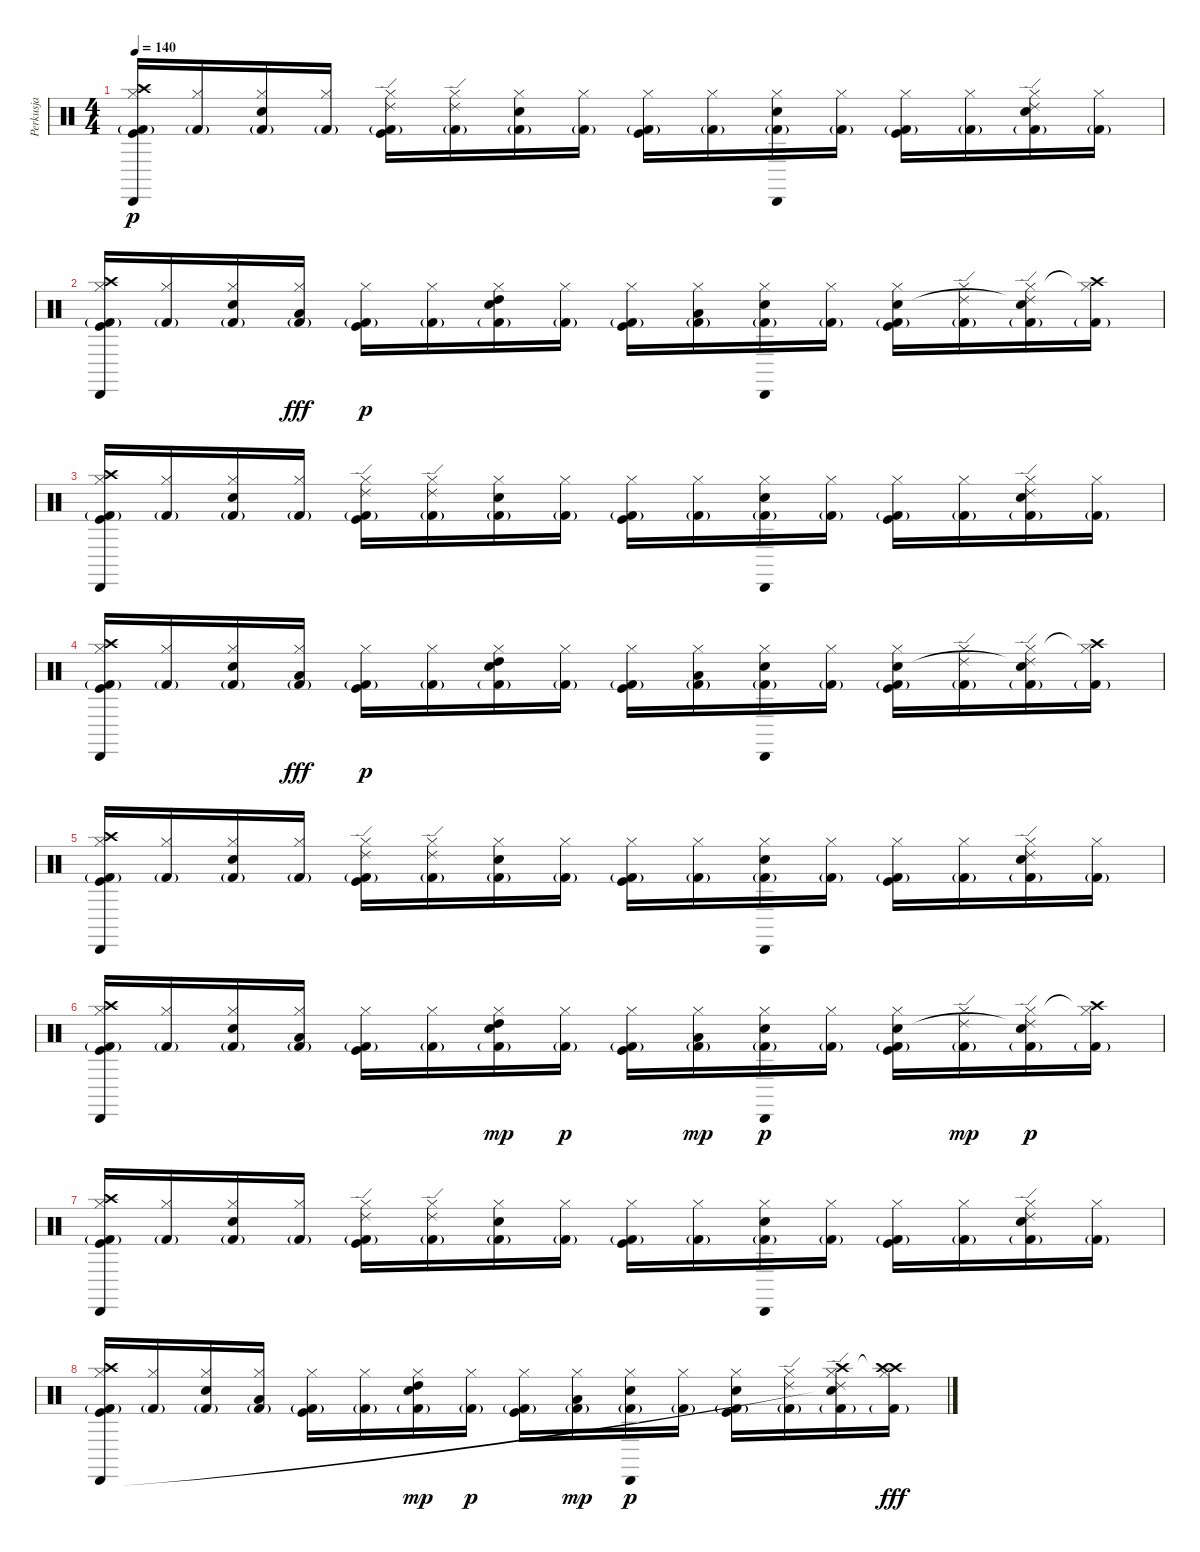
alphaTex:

\track ("Perkusja" "Perkusja") {instrument percussion}
\staff {score}
\articulation defaults
\ts (4 4)
\tempo 140
\clef neutral
\ks c
("Kick (hit) 2"{g} "Kick (hit)" "Hi-Hat (closed)" "Crash high (hit)" "Cabasa (hit)").16{dy p} ("Kick (hit) 2"{g} "Hi-Hat (closed)").16 ("Kick (hit) 2"{g} "Snare (hit) 2" "Hi-Hat (closed)").16 ("Kick (hit) 2"{g} "Hi-Hat (closed)").16 ("Kick (hit) 2"{g} "Kick (hit)" "Hi-Hat (closed)" "Ride (edge) 2").16 ("Kick (hit) 2"{g} "Hi-Hat (closed)" "Ride (edge) 2").16 ("Kick (hit) 2"{g} "Snare (hit) 2" "Hi-Hat (closed)").16 ("Kick (hit) 2"{g} "Hi-Hat (closed)").16 ("Kick (hit) 2"{g} "Kick (hit)" "Hi-Hat (closed)").16 ("Kick (hit) 2"{g} "Hi-Hat (closed)").16 ("Kick (hit) 2"{g} "Snare (hit) 2" "Hi-Hat (closed)" "Cabasa (hit)").16 ("Kick (hit) 2"{g} "Hi-Hat (closed)").16 ("Kick (hit) 2"{g} "Kick (hit)" "Hi-Hat (closed)").16 ("Kick (hit) 2"{g} "Hi-Hat (closed)").16 ("Kick (hit) 2"{g} "Snare (hit) 2" "Hi-Hat (closed)" "Ride (edge) 2").16 ("Kick (hit) 2"{g} "Hi-Hat (closed)").16 |
("Kick (hit) 2"{g} "Kick (hit)" "Hi-Hat (closed)" "Crash high (hit)" "Cabasa (hit)").16 ("Kick (hit) 2"{g} "Hi-Hat (closed)").16 ("Kick (hit) 2"{g} "Snare (hit) 2" "Hi-Hat (closed)").16 ("Kick (hit) 2"{g} "Hi-Hat (closed)" "Low Tom (hit)").16{dy fff} ("Kick (hit) 2"{g} "Kick (hit)" "Hi-Hat (closed)").16{dy p} ("Kick (hit) 2"{g} "Hi-Hat (closed)").16 ("Kick (hit) 2"{g} "Snare (hit) 2" "Hi-Hat (closed)" "High Tom (hit)").16 ("Kick (hit) 2"{g} "Hi-Hat (closed)").16 ("Kick (hit) 2"{g} "Kick (hit)" "Hi-Hat (closed)").16 ("Kick (hit) 2"{g} "Hi-Hat (closed)" "Low Tom (hit)").16 ("Kick (hit) 2"{g} "Snare (hit) 2" "Hi-Hat (closed)" "Cabasa (hit)").16 ("Kick (hit) 2"{g} "Hi-Hat (closed)").16 ("Kick (hit) 2"{g} "Kick (hit)" "Hi-Hat (closed)" "Electric Snare (hit)").16 ("Kick (hit) 2"{g} "Hi-Hat (closed)" "Ride (edge) 2").16 ("Kick (hit) 2"{g} "Snare (hit) 2" "Hi-Hat (closed)" "Ride (edge) 2"{t}).16 ("Kick (hit) 2"{g} "Hi-Hat (closed)" "Crash high (hit)"{t}).16 |
("Kick (hit) 2"{g} "Kick (hit)" "Hi-Hat (closed)" "Crash high (hit)" "Cabasa (hit)").16 ("Kick (hit) 2"{g} "Hi-Hat (closed)").16 ("Kick (hit) 2"{g} "Snare (hit) 2" "Hi-Hat (closed)").16 ("Kick (hit) 2"{g} "Hi-Hat (closed)").16 ("Kick (hit) 2"{g} "Kick (hit)" "Hi-Hat (closed)" "Ride (edge) 2").16 ("Kick (hit) 2"{g} "Hi-Hat (closed)" "Ride (edge) 2").16 ("Kick (hit) 2"{g} "Snare (hit) 2" "Hi-Hat (closed)").16 ("Kick (hit) 2"{g} "Hi-Hat (closed)").16 ("Kick (hit) 2"{g} "Kick (hit)" "Hi-Hat (closed)").16 ("Kick (hit) 2"{g} "Hi-Hat (closed)").16 ("Kick (hit) 2"{g} "Snare (hit) 2" "Hi-Hat (closed)" "Cabasa (hit)").16 ("Kick (hit) 2"{g} "Hi-Hat (closed)").16 ("Kick (hit) 2"{g} "Kick (hit)" "Hi-Hat (closed)").16 ("Kick (hit) 2"{g} "Hi-Hat (closed)").16 ("Kick (hit) 2"{g} "Snare (hit) 2" "Hi-Hat (closed)" "Ride (edge) 2").16 ("Kick (hit) 2"{g} "Hi-Hat (closed)").16 |
("Kick (hit) 2"{g} "Kick (hit)" "Hi-Hat (closed)" "Crash high (hit)" "Cabasa (hit)").16 ("Kick (hit) 2"{g} "Hi-Hat (closed)").16 ("Kick (hit) 2"{g} "Snare (hit) 2" "Hi-Hat (closed)").16 ("Kick (hit) 2"{g} "Hi-Hat (closed)" "Low Tom (hit)").16{dy fff} ("Kick (hit) 2"{g} "Kick (hit)" "Hi-Hat (closed)").16{dy p} ("Kick (hit) 2"{g} "Hi-Hat (closed)").16 ("Kick (hit) 2"{g} "Snare (hit) 2" "Hi-Hat (closed)" "High Tom (hit)").16 ("Kick (hit) 2"{g} "Hi-Hat (closed)").16 ("Kick (hit) 2"{g} "Kick (hit)" "Hi-Hat (closed)").16 ("Kick (hit) 2"{g} "Hi-Hat (closed)" "Low Tom (hit)").16 ("Kick (hit) 2"{g} "Snare (hit) 2" "Hi-Hat (closed)" "Cabasa (hit)").16 ("Kick (hit) 2"{g} "Hi-Hat (closed)").16 ("Kick (hit) 2"{g} "Kick (hit)" "Hi-Hat (closed)" "Electric Snare (hit)").16 ("Kick (hit) 2"{g} "Hi-Hat (closed)" "Ride (edge) 2").16 ("Kick (hit) 2"{g} "Snare (hit) 2" "Hi-Hat (closed)" "Ride (edge) 2"{t}).16 ("Kick (hit) 2"{g} "Hi-Hat (closed)" "Crash high (hit)"{t}).16 |
("Kick (hit) 2"{g} "Kick (hit)" "Hi-Hat (closed)" "Crash high (hit)" "Cabasa (hit)").16 ("Kick (hit) 2"{g} "Hi-Hat (closed)").16 ("Kick (hit) 2"{g} "Snare (hit) 2" "Hi-Hat (closed)").16 ("Kick (hit) 2"{g} "Hi-Hat (closed)").16 ("Kick (hit) 2"{g} "Kick (hit)" "Hi-Hat (closed)" "Ride (edge) 2").16 ("Kick (hit) 2"{g} "Hi-Hat (closed)" "Ride (edge) 2").16 ("Kick (hit) 2"{g} "Snare (hit) 2" "Hi-Hat (closed)").16 ("Kick (hit) 2"{g} "Hi-Hat (closed)").16 ("Kick (hit) 2"{g} "Kick (hit)" "Hi-Hat (closed)").16 ("Kick (hit) 2"{g} "Hi-Hat (closed)").16 ("Kick (hit) 2"{g} "Snare (hit) 2" "Hi-Hat (closed)" "Cabasa (hit)").16 ("Kick (hit) 2"{g} "Hi-Hat (closed)").16 ("Kick (hit) 2"{g} "Kick (hit)" "Hi-Hat (closed)").16 ("Kick (hit) 2"{g} "Hi-Hat (closed)").16 ("Kick (hit) 2"{g} "Snare (hit) 2" "Hi-Hat (closed)" "Ride (edge) 2").16 ("Kick (hit) 2"{g} "Hi-Hat (closed)").16 |
("Kick (hit) 2"{g} "Kick (hit)" "Hi-Hat (closed)" "Crash high (hit)" "Cabasa (hit)").16 ("Kick (hit) 2"{g} "Hi-Hat (closed)").16 ("Kick (hit) 2"{g} "Snare (hit) 2" "Hi-Hat (closed)").16 ("Kick (hit) 2"{g} "Hi-Hat (closed)" "Low Tom (hit)").16 ("Kick (hit) 2"{g} "Kick (hit)" "Hi-Hat (closed)").16 ("Kick (hit) 2"{g} "Hi-Hat (closed)").16 ("Kick (hit) 2"{g} "Snare (hit) 2" "Hi-Hat (closed)" "High Tom (hit)").16{dy mp} ("Kick (hit) 2"{g} "Hi-Hat (closed)").16{dy p} ("Kick (hit) 2"{g} "Kick (hit)" "Hi-Hat (closed)").16 ("Kick (hit) 2"{g} "Hi-Hat (closed)" "Low Tom (hit)").16{dy mp} ("Kick (hit) 2"{g} "Snare (hit) 2" "Hi-Hat (closed)" "Cabasa (hit)").16{dy p} ("Kick (hit) 2"{g} "Hi-Hat (closed)").16 ("Kick (hit) 2"{g} "Kick (hit)" "Hi-Hat (closed)" "Electric Snare (hit)").16 ("Kick (hit) 2"{g} "Hi-Hat (closed)" "Ride (edge) 2").16{dy mp} ("Kick (hit) 2"{g} "Snare (hit) 2" "Hi-Hat (closed)" "Ride (edge) 2"{t}).16{dy p} ("Kick (hit) 2"{g} "Hi-Hat (closed)" "Crash high (hit)"{t}).16 |
("Kick (hit) 2"{g} "Kick (hit)" "Hi-Hat (closed)" "Crash high (hit)" "Cabasa (hit)").16 ("Kick (hit) 2"{g} "Hi-Hat (closed)").16 ("Kick (hit) 2"{g} "Snare (hit) 2" "Hi-Hat (closed)").16 ("Kick (hit) 2"{g} "Hi-Hat (closed)").16 ("Kick (hit) 2"{g} "Kick (hit)" "Hi-Hat (closed)" "Ride (edge) 2").16 ("Kick (hit) 2"{g} "Hi-Hat (closed)" "Ride (edge) 2").16 ("Kick (hit) 2"{g} "Snare (hit) 2" "Hi-Hat (closed)").16 ("Kick (hit) 2"{g} "Hi-Hat (closed)").16 ("Kick (hit) 2"{g} "Kick (hit)" "Hi-Hat (closed)").16 ("Kick (hit) 2"{g} "Hi-Hat (closed)").16 ("Kick (hit) 2"{g} "Snare (hit) 2" "Hi-Hat (closed)" "Cabasa (hit)").16 ("Kick (hit) 2"{g} "Hi-Hat (closed)").16 ("Kick (hit) 2"{g} "Kick (hit)" "Hi-Hat (closed)").16 ("Kick (hit) 2"{g} "Hi-Hat (closed)").16 ("Kick (hit) 2"{g} "Snare (hit) 2" "Hi-Hat (closed)" "Ride (edge) 2").16 ("Kick (hit) 2"{g} "Hi-Hat (closed)").16 |
("Kick (hit) 2"{g} "Kick (hit)" "Hi-Hat (closed)" "Crash high (hit)" "Cabasa (hit)").16 ("Kick (hit) 2"{g} "Hi-Hat (closed)").16 ("Kick (hit) 2"{g} "Snare (hit) 2" "Hi-Hat (closed)").16 ("Kick (hit) 2"{g} "Hi-Hat (closed)" "Low Tom (hit)").16 ("Kick (hit) 2"{g} "Kick (hit)" "Hi-Hat (closed)").16 ("Kick (hit) 2"{g} "Hi-Hat (closed)").16 ("Kick (hit) 2"{g} "Snare (hit) 2" "Hi-Hat (closed)" "High Tom (hit)").16{dy mp} ("Kick (hit) 2"{g} "Hi-Hat (closed)").16{dy p} ("Kick (hit) 2"{g} "Kick (hit)" "Hi-Hat (closed)").16 ("Kick (hit) 2"{g} "Hi-Hat (closed)" "Low Tom (hit)").16{dy mp} ("Kick (hit) 2"{g} "Snare (hit) 2" "Hi-Hat (closed)" "Cabasa (hit)").16{dy p} ("Kick (hit) 2"{g} "Hi-Hat (closed)").16 ("Kick (hit) 2"{g} "Kick (hit)" "Hi-Hat (closed)" "Electric Snare (hit)").16 ("Kick (hit) 2"{g} "Hi-Hat (closed)" "Ride (edge) 2").16 ("Kick (hit) 2"{g} "Snare (hit) 2" "Hi-Hat (closed)" "Crash high (hit)" "Ride (edge) 2"{t}).16 ("Kick (hit) 2"{g} "Hi-Hat (closed)" "Crash high (hit)" "Crash high (hit)"{t}).16{dy fff}
